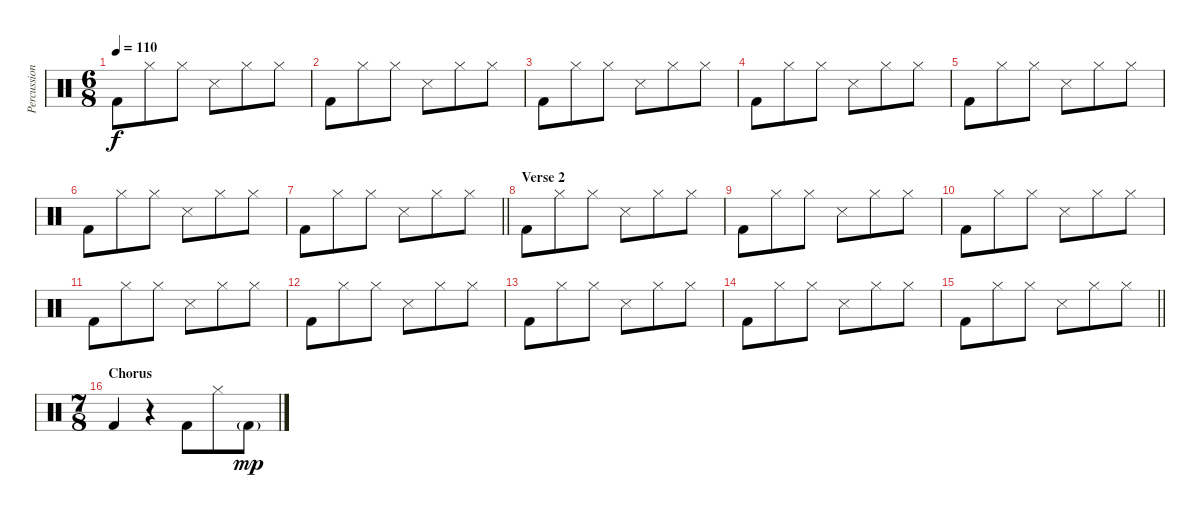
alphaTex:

\track ("Percussion" "Percussion") {instrument percussion}
\staff {score}
\articulation defaults
\ts (6 8)
\tempo 110
\clef neutral
\ks c "Kick (hit) 2".8{dy f} "Hi-Hat (closed)".8 "Hi-Hat (closed)".8 "Snare (side stick) 3".8 "Hi-Hat (closed)".8 "Hi-Hat (closed)".8
|
"Kick (hit) 2".8 "Hi-Hat (closed)".8 "Hi-Hat (closed)".8 "Snare (side stick) 3".8 "Hi-Hat (closed)".8 "Hi-Hat (closed)".8 |
"Kick (hit) 2".8 "Hi-Hat (closed)".8 "Hi-Hat (closed)".8 "Snare (side stick) 3".8 "Hi-Hat (closed)".8 "Hi-Hat (closed)".8 |
"Kick (hit) 2".8 "Hi-Hat (closed)".8 "Hi-Hat (closed)".8 "Snare (side stick) 3".8 "Hi-Hat (closed)".8 "Hi-Hat (closed)".8 |
"Kick (hit) 2".8 "Hi-Hat (closed)".8 "Hi-Hat (closed)".8 "Snare (side stick) 3".8 "Hi-Hat (closed)".8 "Hi-Hat (closed)".8 |
"Kick (hit) 2".8 "Hi-Hat (closed)".8 "Hi-Hat (closed)".8 "Snare (side stick) 3".8 "Hi-Hat (closed)".8 "Hi-Hat (closed)".8 |
\barLineRight lightlight "Kick (hit) 2".8 "Hi-Hat (closed)".8 "Hi-Hat (closed)".8 "Snare (side stick) 3".8 "Hi-Hat (closed)".8 "Hi-Hat (closed)".8
|
\section ("" "Verse 2")
"Kick (hit) 2".8 "Hi-Hat (closed)".8 "Hi-Hat (closed)".8 "Snare (side stick) 3".8 "Hi-Hat (closed)".8 "Hi-Hat (closed)".8 |
"Kick (hit) 2".8 "Hi-Hat (closed)".8 "Hi-Hat (closed)".8 "Snare (side stick) 3".8 "Hi-Hat (closed)".8 "Hi-Hat (closed)".8 |
"Kick (hit) 2".8 "Hi-Hat (closed)".8 "Hi-Hat (closed)".8 "Snare (side stick) 3".8 "Hi-Hat (closed)".8 "Hi-Hat (closed)".8 |
"Kick (hit) 2".8 "Hi-Hat (closed)".8 "Hi-Hat (closed)".8 "Snare (side stick) 3".8 "Hi-Hat (closed)".8 "Hi-Hat (closed)".8 |
"Kick (hit) 2".8 "Hi-Hat (closed)".8 "Hi-Hat (closed)".8 "Snare (side stick) 3".8 "Hi-Hat (closed)".8 "Hi-Hat (closed)".8 |
"Kick (hit) 2".8 "Hi-Hat (closed)".8 "Hi-Hat (closed)".8 "Snare (side stick) 3".8 "Hi-Hat (closed)".8 "Hi-Hat (closed)".8 |
"Kick (hit) 2".8 "Hi-Hat (closed)".8 "Hi-Hat (closed)".8 "Snare (side stick) 3".8 "Hi-Hat (closed)".8 "Hi-Hat (closed)".8 |
\barLineRight lightlight "Kick (hit) 2".8 "Hi-Hat (closed)".8 "Hi-Hat (closed)".8 "Snare (side stick) 3".8 "Hi-Hat (closed)".8 "Hi-Hat (closed)".8
|
\ts (7 8)
\section ("" "Chorus")
"Kick (hit) 2".4 r.4 "Kick (hit) 2".8 "Hi-Hat (closed)".8 "Kick (hit) 2"{g}.8{dy mp}
